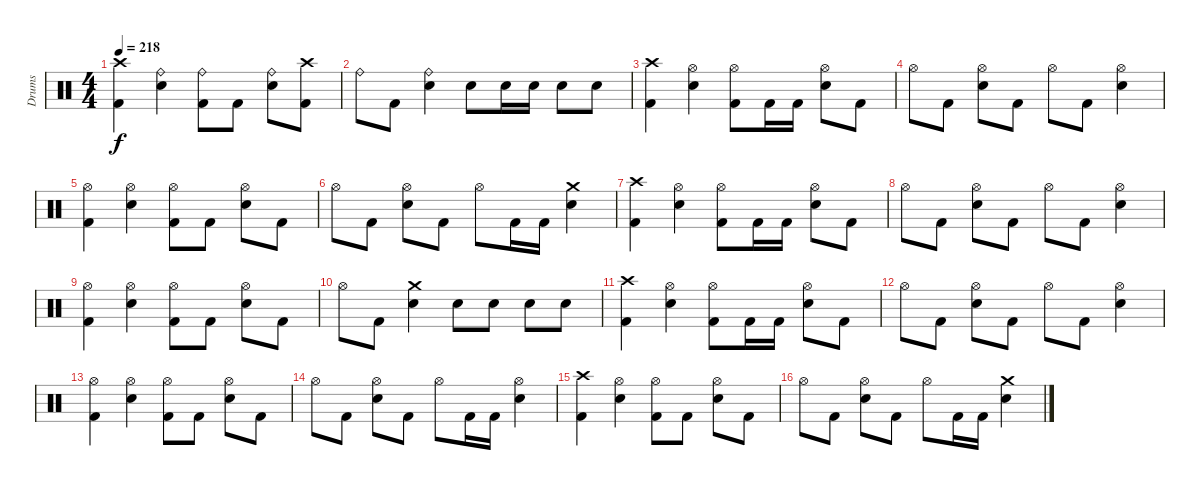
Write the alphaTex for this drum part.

\track ("Drums" "Drums") {instrument percussion}
\staff {score}
\articulation defaults
\ts (4 4)
\tempo 218
\clef neutral
\ks c
("Crash high (hit)" "Kick (hit) 2").4{dy f} ("Ride (bell)" "Snare (hit) 2").4 ("Ride (bell)" "Kick (hit) 2").8 "Kick (hit) 2".8 ("Ride (bell)" "Snare (hit) 2").8 ("Crash high (hit)" "Kick (hit) 2").8 |
"Ride (bell)".8 "Kick (hit) 2".8 ("Ride (bell)" "Snare (hit) 2").4 "Snare (hit) 2".8 "Snare (hit) 2".16 "Snare (hit) 2".16 "Snare (hit) 2".8 "Snare (hit) 2".8 |
("Crash high (hit)" "Kick (hit) 2").4 ("Hi-Hat (open)" "Snare (hit) 2").4 ("Hi-Hat (open)" "Kick (hit) 2").8 "Kick (hit) 2".16 "Kick (hit) 2".16 ("Hi-Hat (open)" "Snare (hit) 2").8 "Kick (hit) 2".8 |
"Hi-Hat (open)".8 "Kick (hit) 2".8 ("Hi-Hat (open)" "Snare (hit) 2").8 "Kick (hit) 2".8 "Hi-Hat (open)".8 "Kick (hit) 2".8 ("Hi-Hat (open)" "Snare (hit) 2").4 |
("Hi-Hat (open)" "Kick (hit) 2").4 ("Hi-Hat (open)" "Snare (hit) 2").4 ("Hi-Hat (open)" "Kick (hit) 2").8 "Kick (hit) 2".8 ("Hi-Hat (open)" "Snare (hit) 2").8 "Kick (hit) 2".8 |
"Hi-Hat (open)".8 "Kick (hit) 2".8 ("Hi-Hat (open)" "Snare (hit) 2").8 "Kick (hit) 2".8 "Hi-Hat (open)".8 "Kick (hit) 2".16 "Kick (hit) 2".16 ("Crash medium (hit)" "Snare (hit) 2").4 |
("Crash high (hit)" "Kick (hit) 2").4 ("Hi-Hat (open)" "Snare (hit) 2").4 ("Hi-Hat (open)" "Kick (hit) 2").8 "Kick (hit) 2".16 "Kick (hit) 2".16 ("Hi-Hat (open)" "Snare (hit) 2").8 "Kick (hit) 2".8 |
"Hi-Hat (open)".8 "Kick (hit) 2".8 ("Hi-Hat (open)" "Snare (hit) 2").8 "Kick (hit) 2".8 "Hi-Hat (open)".8 "Kick (hit) 2".8 ("Hi-Hat (open)" "Snare (hit) 2").4 |
("Hi-Hat (open)" "Kick (hit) 2").4 ("Hi-Hat (open)" "Snare (hit) 2").4 ("Hi-Hat (open)" "Kick (hit) 2").8 "Kick (hit) 2".8 ("Hi-Hat (open)" "Snare (hit) 2").8 "Kick (hit) 2".8 |
"Hi-Hat (open)".8 "Kick (hit) 2".8 ("Crash medium (hit)" "Snare (hit) 2").4 "Snare (hit) 2".8 "Snare (hit) 2".8 "Snare (hit) 2".8 "Snare (hit) 2".8 |
("Crash high (hit)" "Kick (hit) 2").4 ("Hi-Hat (open)" "Snare (hit) 2").4 ("Hi-Hat (open)" "Kick (hit) 2").8 "Kick (hit) 2".16 "Kick (hit) 2".16 ("Hi-Hat (open)" "Snare (hit) 2").8 "Kick (hit) 2".8 |
"Hi-Hat (open)".8 "Kick (hit) 2".8 ("Hi-Hat (open)" "Snare (hit) 2").8 "Kick (hit) 2".8 "Hi-Hat (open)".8 "Kick (hit) 2".8 ("Hi-Hat (open)" "Snare (hit) 2").4 |
("Hi-Hat (open)" "Kick (hit) 2").4 ("Hi-Hat (open)" "Snare (hit) 2").4 ("Hi-Hat (open)" "Kick (hit) 2").8 "Kick (hit) 2".8 ("Hi-Hat (open)" "Snare (hit) 2").8 "Kick (hit) 2".8 |
"Hi-Hat (open)".8 "Kick (hit) 2".8 ("Hi-Hat (open)" "Snare (hit) 2").8 "Kick (hit) 2".8 "Hi-Hat (open)".8 "Kick (hit) 2".16 "Kick (hit) 2".16 ("Hi-Hat (open)" "Snare (hit) 2").4 |
("Crash high (hit)" "Kick (hit) 2").4 ("Hi-Hat (open)" "Snare (hit) 2").4 ("Hi-Hat (open)" "Kick (hit) 2").8 "Kick (hit) 2".8 ("Hi-Hat (open)" "Snare (hit) 2").8 "Kick (hit) 2".8 |
"Hi-Hat (open)".8 "Kick (hit) 2".8 ("Hi-Hat (open)" "Snare (hit) 2").8 "Kick (hit) 2".8 "Hi-Hat (open)".8 "Kick (hit) 2".16 "Kick (hit) 2".16 ("Crash medium (hit)" "Snare (hit) 2").4
